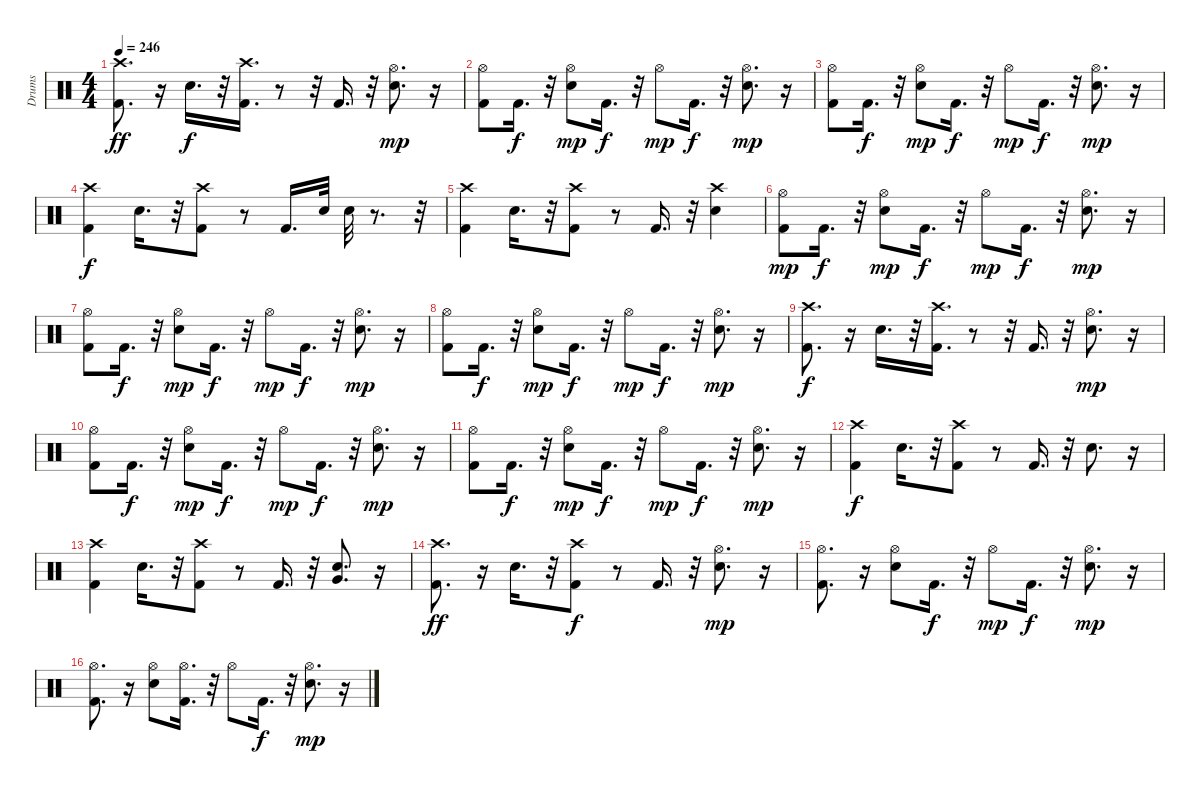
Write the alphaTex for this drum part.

\track ("Drums" "Drums") {instrument percussion}
\staff {score}
\articulation defaults
\ts (4 4)
\tempo 246
\clef neutral
\ks c
("Kick (hit) 2" "Crash high (hit)").8{d dy ff} r.16 "Electric Snare (hit)".16{d dy f} r.32 ("Kick (hit) 2" "Crash high (hit)").16{d} r.8 r.32 "Kick (hit) 2".16{d} r.32 ("Electric Snare (hit)" "Hi-Hat (open)").8{d dy mp} r.16 |
("Kick (hit) 2" "Hi-Hat (open)").8 "Kick (hit) 2".16{d dy f} r.32 ("Electric Snare (hit)" "Hi-Hat (open)").8{dy mp} "Kick (hit) 2".16{d dy f} r.32 "Hi-Hat (open)".8{dy mp} "Kick (hit) 2".16{d dy f} r.32 ("Electric Snare (hit)" "Hi-Hat (open)").8{d dy mp} r.16 |
("Kick (hit) 2" "Hi-Hat (open)").8 "Kick (hit) 2".16{d dy f} r.32 ("Electric Snare (hit)" "Hi-Hat (open)").8{dy mp} "Kick (hit) 2".16{d dy f} r.32 "Hi-Hat (open)".8{dy mp} "Kick (hit) 2".16{d dy f} r.32 ("Electric Snare (hit)" "Hi-Hat (open)").8{d dy mp} r.16 |
("Kick (hit) 2" "Crash high (hit)").4{dy f} "Electric Snare (hit)".16{d} r.32 ("Kick (hit) 2" "Crash high (hit)").8 r.8 "Kick (hit) 2".16{d} "Electric Snare (hit)".32 "Electric Snare (hit)".32 r.8{d} r.32 |
("Kick (hit) 2" "Crash high (hit)").4 "Electric Snare (hit)".16{d} r.32 ("Kick (hit) 2" "Crash high (hit)").8 r.8 "Kick (hit) 2".16{d} r.32 ("Electric Snare (hit)" "Crash high (hit)").4 |
("Kick (hit) 2" "Hi-Hat (open)").8{dy mp} "Kick (hit) 2".16{d dy f} r.32 ("Electric Snare (hit)" "Hi-Hat (open)").8{dy mp} "Kick (hit) 2".16{d dy f} r.32 "Hi-Hat (open)".8{dy mp} "Kick (hit) 2".16{d dy f} r.32 ("Electric Snare (hit)" "Hi-Hat (open)").8{d dy mp} r.16 |
("Kick (hit) 2" "Hi-Hat (open)").8 "Kick (hit) 2".16{d dy f} r.32 ("Electric Snare (hit)" "Hi-Hat (open)").8{dy mp} "Kick (hit) 2".16{d dy f} r.32 "Hi-Hat (open)".8{dy mp} "Kick (hit) 2".16{d dy f} r.32 ("Electric Snare (hit)" "Hi-Hat (open)").8{d dy mp} r.16 |
("Kick (hit) 2" "Hi-Hat (open)").8 "Kick (hit) 2".16{d dy f} r.32 ("Electric Snare (hit)" "Hi-Hat (open)").8{dy mp} "Kick (hit) 2".16{d dy f} r.32 "Hi-Hat (open)".8{dy mp} "Kick (hit) 2".16{d dy f} r.32 ("Electric Snare (hit)" "Hi-Hat (open)").8{d dy mp} r.16 |
("Kick (hit) 2" "Crash high (hit)").8{d dy f} r.16 "Electric Snare (hit)".16{d} r.32 ("Kick (hit) 2" "Crash high (hit)").16{d} r.8 r.32 "Kick (hit) 2".16{d} r.32 ("Electric Snare (hit)" "Hi-Hat (open)").8{d dy mp} r.16 |
("Kick (hit) 2" "Hi-Hat (open)").8 "Kick (hit) 2".16{d dy f} r.32 ("Electric Snare (hit)" "Hi-Hat (open)").8{dy mp} "Kick (hit) 2".16{d dy f} r.32 "Hi-Hat (open)".8{dy mp} "Kick (hit) 2".16{d dy f} r.32 ("Electric Snare (hit)" "Hi-Hat (open)").8{d dy mp} r.16 |
("Kick (hit) 2" "Hi-Hat (open)").8 "Kick (hit) 2".16{d dy f} r.32 ("Electric Snare (hit)" "Hi-Hat (open)").8{dy mp} "Kick (hit) 2".16{d dy f} r.32 "Hi-Hat (open)".8{dy mp} "Kick (hit) 2".16{d dy f} r.32 ("Electric Snare (hit)" "Hi-Hat (open)").8{d dy mp} r.16 |
("Kick (hit) 2" "Crash high (hit)").4{dy f} "Electric Snare (hit)".16{d} r.32 ("Kick (hit) 2" "Crash high (hit)").8 r.8 "Kick (hit) 2".16{d} r.32 "Electric Snare (hit)".8{d} r.16 |
("Kick (hit) 2" "Crash high (hit)").4 "Electric Snare (hit)".16{d} r.32 ("Kick (hit) 2" "Crash high (hit)").8 r.8 "Kick (hit) 2".16{d} r.32 ("Electric Snare (hit)" "Very Low Tom (hit)").8{d} r.16 |
("Kick (hit) 2" "Crash high (hit)").8{d dy ff} r.16 "Electric Snare (hit)".16{d} r.32 ("Kick (hit) 2" "Crash high (hit)").8{dy f} r.8 "Kick (hit) 2".16{d} r.32 ("Electric Snare (hit)" "Hi-Hat (open)").8{d dy mp} r.16 |
("Kick (hit) 2" "Hi-Hat (open)").8{d} r.16 ("Electric Snare (hit)" "Hi-Hat (open)").8 "Kick (hit) 2".16{d dy f} r.32 "Hi-Hat (open)".8{dy mp} "Kick (hit) 2".16{d dy f} r.32 ("Electric Snare (hit)" "Hi-Hat (open)").8{d dy mp} r.16 |
("Kick (hit) 2" "Hi-Hat (open)").8{d} r.16 ("Electric Snare (hit)" "Hi-Hat (open)").8 ("Kick (hit) 2" "Hi-Hat (open)").16{d} r.32 "Hi-Hat (open)".8 "Kick (hit) 2".16{d dy f} r.32 ("Electric Snare (hit)" "Hi-Hat (open)").8{d dy mp} r.16
